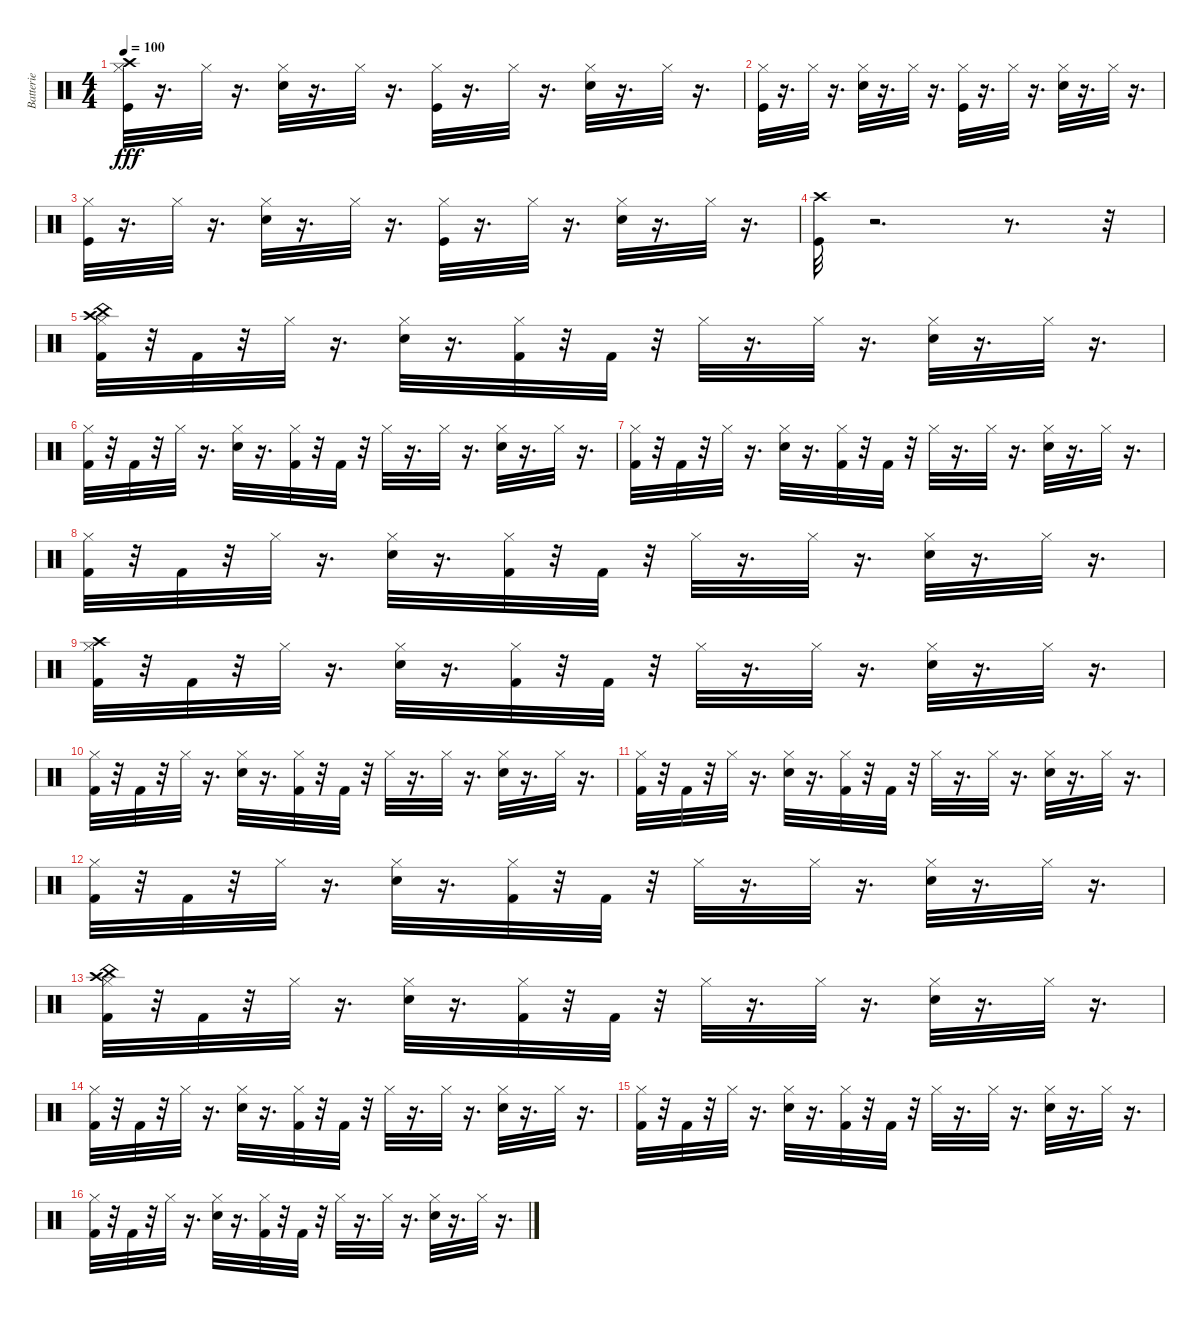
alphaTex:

\track ("Batterie" "Batterie") {instrument percussion}
\staff {score}
\articulation defaults
\ts (4 4)
\tempo 100
\clef neutral
\ks c
("Crash high (hit)" "Hi-Hat (closed)" "Kick (hit)").32{dy fff} r.16{d} "Hi-Hat (closed)".32 r.16{d} ("Hi-Hat (closed)" "Snare (hit) 2").32 r.16{d} "Hi-Hat (closed)".32 r.16{d} ("Hi-Hat (closed)" "Kick (hit)").32 r.16{d} "Hi-Hat (closed)".32 r.16{d} ("Hi-Hat (closed)" "Snare (hit) 2").32 r.16{d} "Hi-Hat (closed)".32 r.16{d} |
("Hi-Hat (closed)" "Kick (hit)").32 r.16{d} "Hi-Hat (closed)".32 r.16{d} ("Hi-Hat (closed)" "Snare (hit) 2").32 r.16{d} "Hi-Hat (closed)".32 r.16{d} ("Hi-Hat (closed)" "Kick (hit)").32 r.16{d} "Hi-Hat (closed)".32 r.16{d} ("Hi-Hat (closed)" "Snare (hit) 2").32 r.16{d} "Hi-Hat (closed)".32 r.16{d} |
("Hi-Hat (closed)" "Kick (hit)").32 r.16{d} "Hi-Hat (closed)".32 r.16{d} ("Hi-Hat (closed)" "Snare (hit) 2").32 r.16{d} "Hi-Hat (closed)".32 r.16{d} ("Hi-Hat (closed)" "Kick (hit)").32 r.16{d} "Hi-Hat (closed)".32 r.16{d} ("Hi-Hat (closed)" "Snare (hit) 2").32 r.16{d} "Hi-Hat (closed)".32 r.16{d} |
("Crash high (hit)" "Kick (hit)").32 r.2{d} r.8{d} r.32 |
("China (hit)" "Crash high (hit)" "Hi-Hat (closed)" "Kick (hit) 2").32 r.32 "Kick (hit) 2".32 r.32 "Hi-Hat (closed)".32 r.16{d} ("Hi-Hat (closed)" "Snare (hit) 2").32 r.16{d} ("Hi-Hat (closed)" "Kick (hit) 2").32 r.32 "Kick (hit) 2".32 r.32 "Hi-Hat (closed)".32 r.16{d} "Hi-Hat (closed)".32 r.16{d} ("Hi-Hat (closed)" "Snare (hit) 2").32 r.16{d} "Hi-Hat (closed)".32 r.16{d} |
("Hi-Hat (closed)" "Kick (hit) 2").32 r.32 "Kick (hit) 2".32 r.32 "Hi-Hat (closed)".32 r.16{d} ("Hi-Hat (closed)" "Snare (hit) 2").32 r.16{d} ("Hi-Hat (closed)" "Kick (hit) 2").32 r.32 "Kick (hit) 2".32 r.32 "Hi-Hat (closed)".32 r.16{d} "Hi-Hat (closed)".32 r.16{d} ("Hi-Hat (closed)" "Snare (hit) 2").32 r.16{d} "Hi-Hat (closed)".32 r.16{d} |
("Hi-Hat (closed)" "Kick (hit) 2").32 r.32 "Kick (hit) 2".32 r.32 "Hi-Hat (closed)".32 r.16{d} ("Hi-Hat (closed)" "Snare (hit) 2").32 r.16{d} ("Hi-Hat (closed)" "Kick (hit) 2").32 r.32 "Kick (hit) 2".32 r.32 "Hi-Hat (closed)".32 r.16{d} "Hi-Hat (closed)".32 r.16{d} ("Hi-Hat (closed)" "Snare (hit) 2").32 r.16{d} "Hi-Hat (closed)".32 r.16{d} |
("Hi-Hat (closed)" "Kick (hit) 2").32 r.32 "Kick (hit) 2".32 r.32 "Hi-Hat (closed)".32 r.16{d} ("Hi-Hat (closed)" "Snare (hit) 2").32 r.16{d} ("Hi-Hat (closed)" "Kick (hit) 2").32 r.32 "Kick (hit) 2".32 r.32 "Hi-Hat (closed)".32 r.16{d} "Hi-Hat (closed)".32 r.16{d} ("Hi-Hat (closed)" "Snare (hit) 2").32 r.16{d} "Hi-Hat (closed)".32 r.16{d} |
("Crash high (hit)" "Hi-Hat (closed)" "Kick (hit) 2").32 r.32 "Kick (hit) 2".32 r.32 "Hi-Hat (closed)".32 r.16{d} ("Hi-Hat (closed)" "Snare (hit) 2").32 r.16{d} ("Hi-Hat (closed)" "Kick (hit) 2").32 r.32 "Kick (hit) 2".32 r.32 "Hi-Hat (closed)".32 r.16{d} "Hi-Hat (closed)".32 r.16{d} ("Hi-Hat (closed)" "Snare (hit) 2").32 r.16{d} "Hi-Hat (closed)".32 r.16{d} |
("Hi-Hat (closed)" "Kick (hit) 2").32 r.32 "Kick (hit) 2".32 r.32 "Hi-Hat (closed)".32 r.16{d} ("Hi-Hat (closed)" "Snare (hit) 2").32 r.16{d} ("Hi-Hat (closed)" "Kick (hit) 2").32 r.32 "Kick (hit) 2".32 r.32 "Hi-Hat (closed)".32 r.16{d} "Hi-Hat (closed)".32 r.16{d} ("Hi-Hat (closed)" "Snare (hit) 2").32 r.16{d} "Hi-Hat (closed)".32 r.16{d} |
("Hi-Hat (closed)" "Kick (hit) 2").32 r.32 "Kick (hit) 2".32 r.32 "Hi-Hat (closed)".32 r.16{d} ("Hi-Hat (closed)" "Snare (hit) 2").32 r.16{d} ("Hi-Hat (closed)" "Kick (hit) 2").32 r.32 "Kick (hit) 2".32 r.32 "Hi-Hat (closed)".32 r.16{d} "Hi-Hat (closed)".32 r.16{d} ("Hi-Hat (closed)" "Snare (hit) 2").32 r.16{d} "Hi-Hat (closed)".32 r.16{d} |
("Hi-Hat (closed)" "Kick (hit) 2").32 r.32 "Kick (hit) 2".32 r.32 "Hi-Hat (closed)".32 r.16{d} ("Hi-Hat (closed)" "Snare (hit) 2").32 r.16{d} ("Hi-Hat (closed)" "Kick (hit) 2").32 r.32 "Kick (hit) 2".32 r.32 "Hi-Hat (closed)".32 r.16{d} "Hi-Hat (closed)".32 r.16{d} ("Hi-Hat (closed)" "Snare (hit) 2").32 r.16{d} "Hi-Hat (closed)".32 r.16{d} |
("China (hit)" "Crash high (hit)" "Hi-Hat (closed)" "Kick (hit) 2").32 r.32 "Kick (hit) 2".32 r.32 "Hi-Hat (closed)".32 r.16{d} ("Hi-Hat (closed)" "Snare (hit) 2").32 r.16{d} ("Hi-Hat (closed)" "Kick (hit) 2").32 r.32 "Kick (hit) 2".32 r.32 "Hi-Hat (closed)".32 r.16{d} "Hi-Hat (closed)".32 r.16{d} ("Hi-Hat (closed)" "Snare (hit) 2").32 r.16{d} "Hi-Hat (closed)".32 r.16{d} |
("Hi-Hat (closed)" "Kick (hit) 2").32 r.32 "Kick (hit) 2".32 r.32 "Hi-Hat (closed)".32 r.16{d} ("Hi-Hat (closed)" "Snare (hit) 2").32 r.16{d} ("Hi-Hat (closed)" "Kick (hit) 2").32 r.32 "Kick (hit) 2".32 r.32 "Hi-Hat (closed)".32 r.16{d} "Hi-Hat (closed)".32 r.16{d} ("Hi-Hat (closed)" "Snare (hit) 2").32 r.16{d} "Hi-Hat (closed)".32 r.16{d} |
("Hi-Hat (closed)" "Kick (hit) 2").32 r.32 "Kick (hit) 2".32 r.32 "Hi-Hat (closed)".32 r.16{d} ("Hi-Hat (closed)" "Snare (hit) 2").32 r.16{d} ("Hi-Hat (closed)" "Kick (hit) 2").32 r.32 "Kick (hit) 2".32 r.32 "Hi-Hat (closed)".32 r.16{d} "Hi-Hat (closed)".32 r.16{d} ("Hi-Hat (closed)" "Snare (hit) 2").32 r.16{d} "Hi-Hat (closed)".32 r.16{d} |
("Hi-Hat (closed)" "Kick (hit) 2").32 r.32 "Kick (hit) 2".32 r.32 "Hi-Hat (closed)".32 r.16{d} ("Hi-Hat (closed)" "Snare (hit) 2").32 r.16{d} ("Hi-Hat (closed)" "Kick (hit) 2").32 r.32 "Kick (hit) 2".32 r.32 "Hi-Hat (closed)".32 r.16{d} "Hi-Hat (closed)".32 r.16{d} ("Hi-Hat (closed)" "Snare (hit) 2").32 r.16{d} "Hi-Hat (closed)".32 r.16{d}
